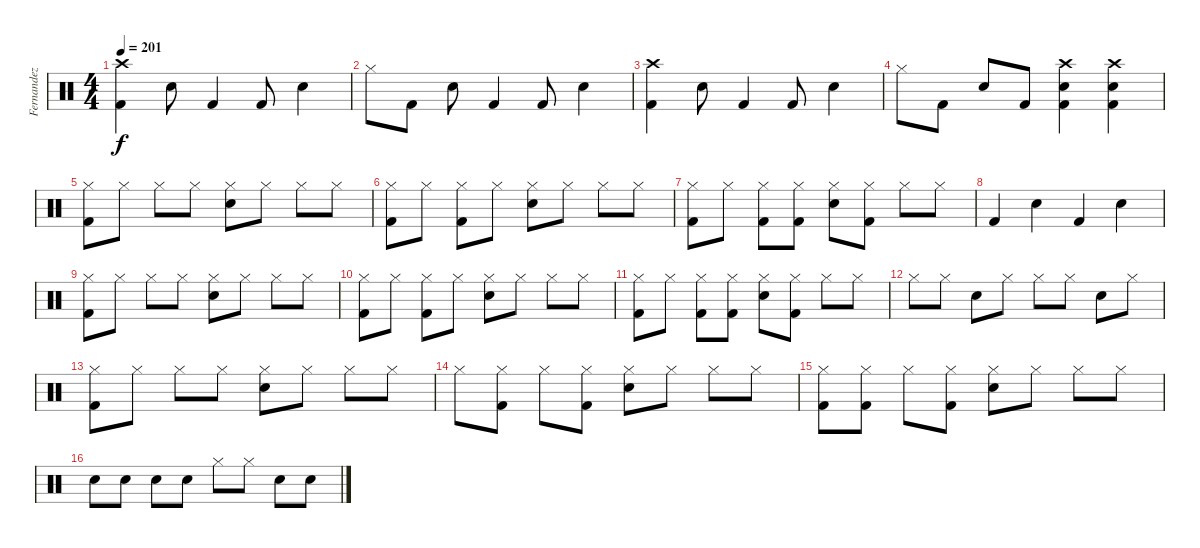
\track ("Fernandez" "Fernandez") {instrument percussion}
\staff {score}
\articulation defaults
\ts (4 4)
\tempo 201
\clef neutral
\ks c
("Crash high (hit)" "Kick (hit) 2").4{dy f} "Snare (hit) 2".8 "Kick (hit) 2".4 "Kick (hit) 2".8 "Snare (hit) 2".4 |
"Hi-Hat (closed)".8 "Kick (hit) 2".8 "Snare (hit) 2".8 "Kick (hit) 2".4 "Kick (hit) 2".8 "Snare (hit) 2".4 |
("Crash high (hit)" "Kick (hit) 2").4 "Snare (hit) 2".8 "Kick (hit) 2".4 "Kick (hit) 2".8 "Snare (hit) 2".4 |
"Hi-Hat (closed)".8 "Kick (hit) 2".8 "Snare (hit) 2".8 "Kick (hit) 2".8 ("Kick (hit) 2" "Crash high (hit)" "Snare (hit) 2").4 ("Kick (hit) 2" "Crash high (hit)" "Snare (hit) 2").4 |
("Kick (hit) 2" "Hi-Hat (closed)").8 "Hi-Hat (closed)".8 "Hi-Hat (closed)".8 "Hi-Hat (closed)".8 ("Snare (hit) 2" "Hi-Hat (closed)").8 "Hi-Hat (closed)".8 "Hi-Hat (closed)".8 "Hi-Hat (closed)".8 |
("Kick (hit) 2" "Hi-Hat (closed)").8 "Hi-Hat (closed)".8 ("Kick (hit) 2" "Hi-Hat (closed)").8 "Hi-Hat (closed)".8 ("Snare (hit) 2" "Hi-Hat (closed)").8 "Hi-Hat (closed)".8 "Hi-Hat (closed)".8 "Hi-Hat (closed)".8 |
("Kick (hit) 2" "Hi-Hat (closed)").8 "Hi-Hat (closed)".8 ("Kick (hit) 2" "Hi-Hat (closed)").8 ("Kick (hit) 2" "Hi-Hat (closed)").8 ("Snare (hit) 2" "Hi-Hat (closed)").8 ("Kick (hit) 2" "Hi-Hat (closed)").8 "Hi-Hat (closed)".8 "Hi-Hat (closed)".8 |
"Kick (hit) 2".4 "Snare (hit) 2".4 "Kick (hit) 2".4 "Snare (hit) 2".4 |
("Kick (hit) 2" "Hi-Hat (closed)").8 "Hi-Hat (closed)".8 "Hi-Hat (closed)".8 "Hi-Hat (closed)".8 ("Snare (hit) 2" "Hi-Hat (closed)").8 "Hi-Hat (closed)".8 "Hi-Hat (closed)".8 "Hi-Hat (closed)".8 |
("Kick (hit) 2" "Hi-Hat (closed)").8 "Hi-Hat (closed)".8 ("Kick (hit) 2" "Hi-Hat (closed)").8 "Hi-Hat (closed)".8 ("Snare (hit) 2" "Hi-Hat (closed)").8 "Hi-Hat (closed)".8 "Hi-Hat (closed)".8 "Hi-Hat (closed)".8 |
("Kick (hit) 2" "Hi-Hat (closed)").8 "Hi-Hat (closed)".8 ("Kick (hit) 2" "Hi-Hat (closed)").8 ("Kick (hit) 2" "Hi-Hat (closed)").8 ("Snare (hit) 2" "Hi-Hat (closed)").8 ("Kick (hit) 2" "Hi-Hat (closed)").8 "Hi-Hat (closed)".8 "Hi-Hat (closed)".8 |
"Hi-Hat (closed)".8 "Hi-Hat (closed)".8 "Snare (hit) 2".8 "Hi-Hat (closed)".8 "Hi-Hat (closed)".8 "Hi-Hat (closed)".8 "Snare (hit) 2".8 "Hi-Hat (closed)".8 |
("Kick (hit) 2" "Hi-Hat (closed)").8 "Hi-Hat (closed)".8 "Hi-Hat (closed)".8 "Hi-Hat (closed)".8 ("Snare (hit) 2" "Hi-Hat (closed)").8 "Hi-Hat (closed)".8 "Hi-Hat (closed)".8 "Hi-Hat (closed)".8 |
"Hi-Hat (closed)".8 ("Kick (hit) 2" "Hi-Hat (closed)").8 "Hi-Hat (closed)".8 ("Kick (hit) 2" "Hi-Hat (closed)").8 ("Snare (hit) 2" "Hi-Hat (closed)").8 "Hi-Hat (closed)".8 "Hi-Hat (closed)".8 "Hi-Hat (closed)".8 |
("Kick (hit) 2" "Hi-Hat (closed)").8 ("Kick (hit) 2" "Hi-Hat (closed)").8 "Hi-Hat (closed)".8 ("Kick (hit) 2" "Hi-Hat (closed)").8 ("Snare (hit) 2" "Hi-Hat (closed)").8 "Hi-Hat (closed)".8 "Hi-Hat (closed)".8 "Hi-Hat (closed)".8 |
"Snare (hit) 2".8 "Snare (hit) 2".8 "Snare (hit) 2".8 "Snare (hit) 2".8 "Hi-Hat (closed)".8 "Hi-Hat (closed)".8 "Snare (hit) 2".8 "Snare (hit) 2".8
